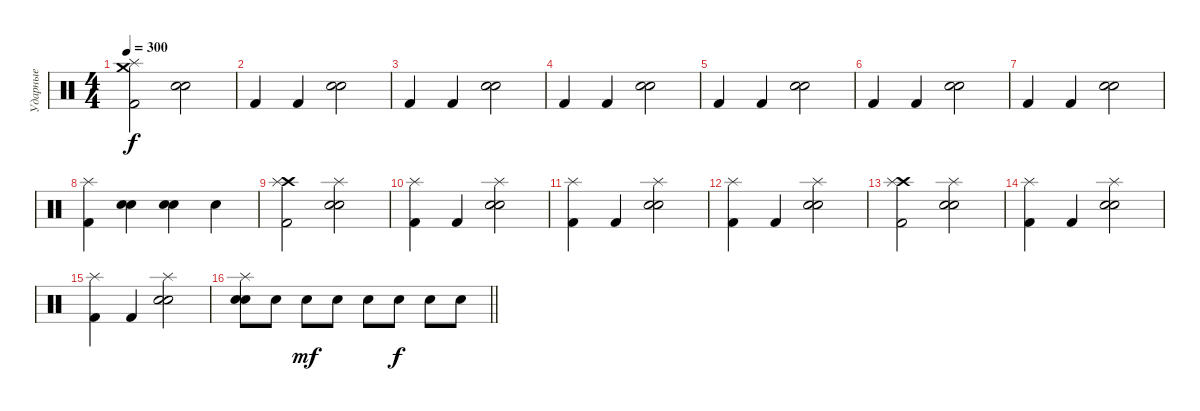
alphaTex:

\track ("Ударные" "Ударные") {instrument percussion}
\staff {score}
\articulation defaults
\ts (4 4)
\tempo 300
\clef neutral
\ks c
("Crash medium (hit)" "Splash (hit)" "Kick (hit) 2").2{dy f} ("Electric Snare (hit)" "Snare (hit) 2").2 |
"Kick (hit) 2".4 "Kick (hit) 2".4 ("Electric Snare (hit)" "Snare (hit) 2").2 |
"Kick (hit) 2".4 "Kick (hit) 2".4 ("Electric Snare (hit)" "Snare (hit) 2").2 |
"Kick (hit) 2".4 "Kick (hit) 2".4 ("Electric Snare (hit)" "Snare (hit) 2").2 |
"Kick (hit) 2".4 "Kick (hit) 2".4 ("Electric Snare (hit)" "Snare (hit) 2").2 |
"Kick (hit) 2".4 "Kick (hit) 2".4 ("Electric Snare (hit)" "Snare (hit) 2").2 |
"Kick (hit) 2".4 "Kick (hit) 2".4 ("Electric Snare (hit)" "Snare (hit) 2").2 |
("Splash (hit)" "Kick (hit) 2").4 ("Electric Snare (hit)" "Snare (hit) 2").4 ("Electric Snare (hit)" "Snare (hit) 2").4 "Electric Snare (hit)".4 |
("Crash high (hit)" "Splash (hit)" "Kick (hit) 2").2 ("Splash (hit)" "Electric Snare (hit)" "Snare (hit) 2").2 |
("Splash (hit)" "Kick (hit) 2").4 "Kick (hit) 2".4 ("Splash (hit)" "Electric Snare (hit)" "Snare (hit) 2").2 |
("Splash (hit)" "Kick (hit) 2").4 "Kick (hit) 2".4 ("Splash (hit)" "Electric Snare (hit)" "Snare (hit) 2").2 |
("Splash (hit)" "Kick (hit) 2").4 "Kick (hit) 2".4 ("Splash (hit)" "Electric Snare (hit)" "Snare (hit) 2").2 |
("Crash high (hit)" "Splash (hit)" "Kick (hit) 2").2 ("Splash (hit)" "Electric Snare (hit)" "Snare (hit) 2").2 |
("Splash (hit)" "Kick (hit) 2").4 "Kick (hit) 2".4 ("Splash (hit)" "Electric Snare (hit)" "Snare (hit) 2").2 |
("Splash (hit)" "Kick (hit) 2").4 "Kick (hit) 2".4 ("Splash (hit)" "Electric Snare (hit)" "Snare (hit) 2").2 |
\barLineRight lightlight
("Splash (hit)" "Electric Snare (hit)" "Snare (hit) 2").8 "Electric Snare (hit)".8 "Electric Snare (hit)".8{dy mf} "Electric Snare (hit)".8 "Electric Snare (hit)".8 "Electric Snare (hit)".8{dy f} "Electric Snare (hit)".8 "Electric Snare (hit)".8
